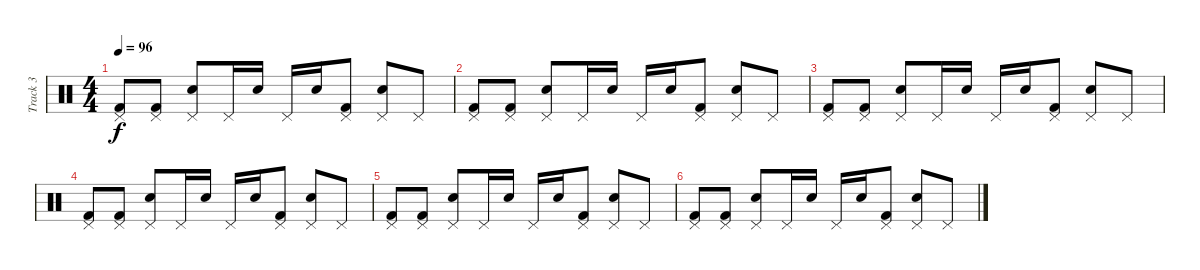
\track ("Track 3" "Track 3") {instrument percussion}
\staff {score}
\articulation defaults
\ts (4 4)
\tempo 96
\clef neutral
\ks c
("Kick (hit) 2" "Pedal Hi-Hat (hit)").8{dy f} ("Kick (hit) 2" "Pedal Hi-Hat (hit)").8 ("Electric Snare (hit)" "Pedal Hi-Hat (hit)").8 "Pedal Hi-Hat (hit)".16 "Electric Snare (hit)".16 "Pedal Hi-Hat (hit)".16 "Electric Snare (hit)".16 ("Kick (hit) 2" "Pedal Hi-Hat (hit)").8 ("Electric Snare (hit)" "Pedal Hi-Hat (hit)").8 "Pedal Hi-Hat (hit)".8 |
("Kick (hit) 2" "Pedal Hi-Hat (hit)").8 ("Kick (hit) 2" "Pedal Hi-Hat (hit)").8 ("Electric Snare (hit)" "Pedal Hi-Hat (hit)").8 "Pedal Hi-Hat (hit)".16 "Electric Snare (hit)".16 "Pedal Hi-Hat (hit)".16 "Electric Snare (hit)".16 ("Kick (hit) 2" "Pedal Hi-Hat (hit)").8 ("Electric Snare (hit)" "Pedal Hi-Hat (hit)").8 "Pedal Hi-Hat (hit)".8 |
("Kick (hit) 2" "Pedal Hi-Hat (hit)").8 ("Kick (hit) 2" "Pedal Hi-Hat (hit)").8 ("Electric Snare (hit)" "Pedal Hi-Hat (hit)").8 "Pedal Hi-Hat (hit)".16 "Electric Snare (hit)".16 "Pedal Hi-Hat (hit)".16 "Electric Snare (hit)".16 ("Kick (hit) 2" "Pedal Hi-Hat (hit)").8 ("Electric Snare (hit)" "Pedal Hi-Hat (hit)").8 "Pedal Hi-Hat (hit)".8 |
("Kick (hit) 2" "Pedal Hi-Hat (hit)").8 ("Kick (hit) 2" "Pedal Hi-Hat (hit)").8 ("Electric Snare (hit)" "Pedal Hi-Hat (hit)").8 "Pedal Hi-Hat (hit)".16 "Electric Snare (hit)".16 "Pedal Hi-Hat (hit)".16 "Electric Snare (hit)".16 ("Kick (hit) 2" "Pedal Hi-Hat (hit)").8 ("Electric Snare (hit)" "Pedal Hi-Hat (hit)").8 "Pedal Hi-Hat (hit)".8 |
("Kick (hit) 2" "Pedal Hi-Hat (hit)").8 ("Kick (hit) 2" "Pedal Hi-Hat (hit)").8 ("Electric Snare (hit)" "Pedal Hi-Hat (hit)").8 "Pedal Hi-Hat (hit)".16 "Electric Snare (hit)".16 "Pedal Hi-Hat (hit)".16 "Electric Snare (hit)".16 ("Kick (hit) 2" "Pedal Hi-Hat (hit)").8 ("Electric Snare (hit)" "Pedal Hi-Hat (hit)").8 "Pedal Hi-Hat (hit)".8 |
("Kick (hit) 2" "Pedal Hi-Hat (hit)").8 ("Kick (hit) 2" "Pedal Hi-Hat (hit)").8 ("Electric Snare (hit)" "Pedal Hi-Hat (hit)").8 "Pedal Hi-Hat (hit)".16 "Electric Snare (hit)".16 "Pedal Hi-Hat (hit)".16 "Electric Snare (hit)".16 ("Kick (hit) 2" "Pedal Hi-Hat (hit)").8 ("Electric Snare (hit)" "Pedal Hi-Hat (hit)").8 "Pedal Hi-Hat (hit)".8
